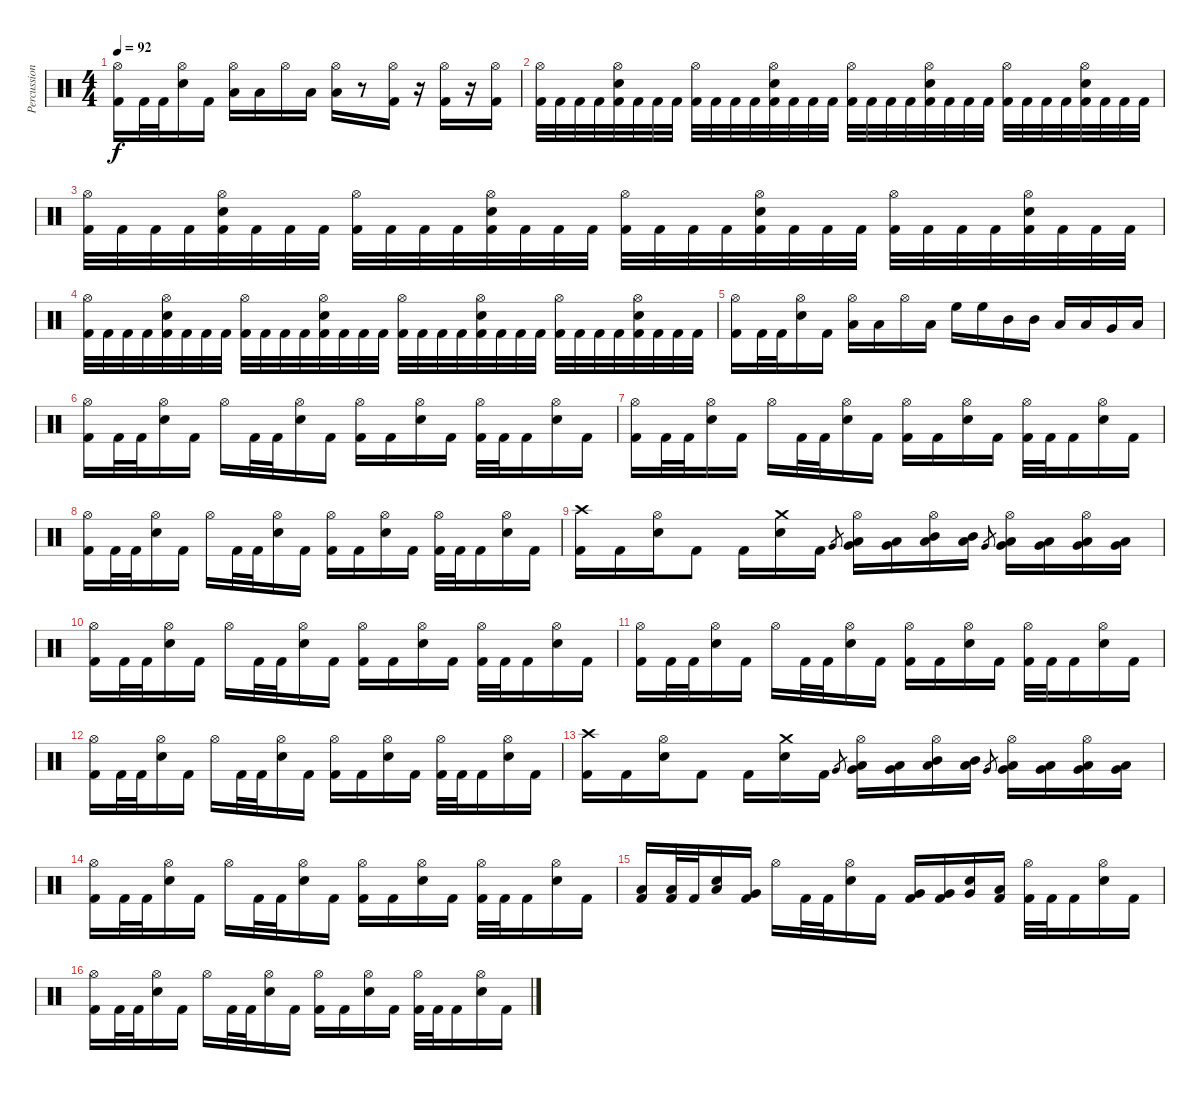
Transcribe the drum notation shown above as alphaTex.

\track ("Percussion" "Percussion") {instrument percussion}
\staff {score}
\articulation defaults
\ts (4 4)
\tempo 92
\clef neutral
\ks c
("Kick (hit) 2" "Hi-Hat (open)").16{dy f} "Kick (hit) 2".32 "Kick (hit) 2".32 ("Electric Snare (hit)" "Hi-Hat (open)").16 "Kick (hit) 2".16 ("Low Tom (hit)" "Hi-Hat (open)").16 "Low Tom (hit)".16 "Hi-Hat (open)".16 "Low Floor Tom (hit)".16 ("Low Floor Tom (hit)" "Hi-Hat (open)").16 r.8 ("Hi-Hat (open)" "Kick (hit) 2").16 r.16 ("Hi-Hat (open)" "Kick (hit) 2").16 r.16 ("Hi-Hat (open)" "Kick (hit) 2").16 |
("Kick (hit) 2" "Hi-Hat (open)").32 "Kick (hit) 2".32 "Kick (hit) 2".32 "Kick (hit) 2".32 ("Kick (hit) 2" "Electric Snare (hit)" "Hi-Hat (open)").32 "Kick (hit) 2".32 "Kick (hit) 2".32 "Kick (hit) 2".32 ("Kick (hit) 2" "Hi-Hat (open)").32 "Kick (hit) 2".32 "Kick (hit) 2".32 "Kick (hit) 2".32 ("Kick (hit) 2" "Electric Snare (hit)" "Hi-Hat (open)").32 "Kick (hit) 2".32 "Kick (hit) 2".32 "Kick (hit) 2".32 ("Kick (hit) 2" "Hi-Hat (open)").32 "Kick (hit) 2".32 "Kick (hit) 2".32 "Kick (hit) 2".32 ("Kick (hit) 2" "Electric Snare (hit)" "Hi-Hat (open)").32 "Kick (hit) 2".32 "Kick (hit) 2".32 "Kick (hit) 2".32 ("Kick (hit) 2" "Hi-Hat (open)").32 "Kick (hit) 2".32 "Kick (hit) 2".32 "Kick (hit) 2".32 ("Kick (hit) 2" "Electric Snare (hit)" "Hi-Hat (open)").32 "Kick (hit) 2".32 "Kick (hit) 2".32 "Kick (hit) 2".32 |
("Kick (hit) 2" "Hi-Hat (open)").32 "Kick (hit) 2".32 "Kick (hit) 2".32 "Kick (hit) 2".32 ("Kick (hit) 2" "Electric Snare (hit)" "Hi-Hat (open)").32 "Kick (hit) 2".32 "Kick (hit) 2".32 "Kick (hit) 2".32 ("Kick (hit) 2" "Hi-Hat (open)").32 "Kick (hit) 2".32 "Kick (hit) 2".32 "Kick (hit) 2".32 ("Kick (hit) 2" "Electric Snare (hit)" "Hi-Hat (open)").32 "Kick (hit) 2".32 "Kick (hit) 2".32 "Kick (hit) 2".32 ("Kick (hit) 2" "Hi-Hat (open)").32 "Kick (hit) 2".32 "Kick (hit) 2".32 "Kick (hit) 2".32 ("Kick (hit) 2" "Electric Snare (hit)" "Hi-Hat (open)").32 "Kick (hit) 2".32 "Kick (hit) 2".32 "Kick (hit) 2".32 ("Kick (hit) 2" "Hi-Hat (open)").32 "Kick (hit) 2".32 "Kick (hit) 2".32 "Kick (hit) 2".32 ("Kick (hit) 2" "Electric Snare (hit)" "Hi-Hat (open)").32 "Kick (hit) 2".32 "Kick (hit) 2".32 "Kick (hit) 2".32 |
("Kick (hit) 2" "Hi-Hat (open)").32 "Kick (hit) 2".32 "Kick (hit) 2".32 "Kick (hit) 2".32 ("Kick (hit) 2" "Electric Snare (hit)" "Hi-Hat (open)").32 "Kick (hit) 2".32 "Kick (hit) 2".32 "Kick (hit) 2".32 ("Kick (hit) 2" "Hi-Hat (open)").32 "Kick (hit) 2".32 "Kick (hit) 2".32 "Kick (hit) 2".32 ("Kick (hit) 2" "Electric Snare (hit)" "Hi-Hat (open)").32 "Kick (hit) 2".32 "Kick (hit) 2".32 "Kick (hit) 2".32 ("Kick (hit) 2" "Hi-Hat (open)").32 "Kick (hit) 2".32 "Kick (hit) 2".32 "Kick (hit) 2".32 ("Kick (hit) 2" "Electric Snare (hit)" "Hi-Hat (open)").32 "Kick (hit) 2".32 "Kick (hit) 2".32 "Kick (hit) 2".32 ("Kick (hit) 2" "Hi-Hat (open)").32 "Kick (hit) 2".32 "Kick (hit) 2".32 "Kick (hit) 2".32 ("Kick (hit) 2" "Electric Snare (hit)" "Hi-Hat (open)").32 "Kick (hit) 2".32 "Kick (hit) 2".32 "Kick (hit) 2".32 |
("Kick (hit) 2" "Hi-Hat (open)").16 "Kick (hit) 2".32 "Kick (hit) 2".32 ("Electric Snare (hit)" "Hi-Hat (open)").16 "Kick (hit) 2".16 ("Low Tom (hit)" "Hi-Hat (open)").16 "Low Tom (hit)".16 "Hi-Hat (open)".16 "Low Floor Tom (hit)".16 "High Floor Tom (hit)".16 "High Floor Tom (hit)".16 "Mid Tom (hit)".16 "Mid Tom (hit)".16 "Low Tom (hit)".16 "Low Tom (hit)".16 "Very Low Tom (hit)".16 "Low Floor Tom (hit)".16 |
("Kick (hit) 2" "Hi-Hat (open)").16 "Kick (hit) 2".32 "Kick (hit) 2".32 ("Electric Snare (hit)" "Hi-Hat (open)").16 "Kick (hit) 2".16 "Hi-Hat (open)".16 "Kick (hit) 2".32 "Kick (hit) 2".32 ("Electric Snare (hit)" "Hi-Hat (open)").16 "Kick (hit) 2".16 ("Kick (hit) 2" "Hi-Hat (open)").16 "Kick (hit) 2".16 ("Electric Snare (hit)" "Hi-Hat (open)").16 "Kick (hit) 2".16 ("Kick (hit) 2" "Hi-Hat (open)").32 "Kick (hit) 2".32 "Kick (hit) 2".16 ("Electric Snare (hit)" "Hi-Hat (open)").16 "Kick (hit) 2".16 |
("Kick (hit) 2" "Hi-Hat (open)").16 "Kick (hit) 2".32 "Kick (hit) 2".32 ("Electric Snare (hit)" "Hi-Hat (open)").16 "Kick (hit) 2".16 "Hi-Hat (open)".16 "Kick (hit) 2".32 "Kick (hit) 2".32 ("Electric Snare (hit)" "Hi-Hat (open)").16 "Kick (hit) 2".16 ("Kick (hit) 2" "Hi-Hat (open)").16 "Kick (hit) 2".16 ("Electric Snare (hit)" "Hi-Hat (open)").16 "Kick (hit) 2".16 ("Kick (hit) 2" "Hi-Hat (open)").32 "Kick (hit) 2".32 "Kick (hit) 2".16 ("Electric Snare (hit)" "Hi-Hat (open)").16 "Kick (hit) 2".16 |
("Kick (hit) 2" "Hi-Hat (open)").16 "Kick (hit) 2".32 "Kick (hit) 2".32 ("Electric Snare (hit)" "Hi-Hat (open)").16 "Kick (hit) 2".16 "Hi-Hat (open)".16 "Kick (hit) 2".32 "Kick (hit) 2".32 ("Electric Snare (hit)" "Hi-Hat (open)").16 "Kick (hit) 2".16 ("Kick (hit) 2" "Hi-Hat (open)").16 "Kick (hit) 2".16 ("Electric Snare (hit)" "Hi-Hat (open)").16 "Kick (hit) 2".16 ("Kick (hit) 2" "Hi-Hat (open)").32 "Kick (hit) 2".32 "Kick (hit) 2".16 ("Electric Snare (hit)" "Hi-Hat (open)").16 "Kick (hit) 2".16 |
("Kick (hit) 2" "Crash high (hit)").16 "Kick (hit) 2".16 ("Electric Snare (hit)" "Hi-Hat (open)").16 "Kick (hit) 2".8 "Kick (hit) 2".16 ("Electric Snare (hit)" "Crash medium (hit)").16 "Kick (hit) 2".16 "Very Low Tom (hit)".8{gr} ("Low Tom (hit)" "Very Low Tom (hit)" "Hi-Hat (open)").16 ("Low Tom (hit)" "Very Low Tom (hit)").16 ("Mid Tom (hit)" "Low Floor Tom (hit)" "Hi-Hat (open)").16 ("Mid Tom (hit)" "Low Floor Tom (hit)").16 "Very Low Tom (hit)".8{gr} ("Low Tom (hit)" "Very Low Tom (hit)" "Hi-Hat (open)").16 ("Low Tom (hit)" "Very Low Tom (hit)").16 ("Low Floor Tom (hit)" "Very Low Tom (hit)" "Hi-Hat (open)").16 ("Low Floor Tom (hit)" "Very Low Tom (hit)").16 |
("Kick (hit) 2" "Hi-Hat (open)").16 "Kick (hit) 2".32 "Kick (hit) 2".32 ("Electric Snare (hit)" "Hi-Hat (open)").16 "Kick (hit) 2".16 "Hi-Hat (open)".16 "Kick (hit) 2".32 "Kick (hit) 2".32 ("Electric Snare (hit)" "Hi-Hat (open)").16 "Kick (hit) 2".16 ("Kick (hit) 2" "Hi-Hat (open)").16 "Kick (hit) 2".16 ("Electric Snare (hit)" "Hi-Hat (open)").16 "Kick (hit) 2".16 ("Kick (hit) 2" "Hi-Hat (open)").32 "Kick (hit) 2".32 "Kick (hit) 2".16 ("Electric Snare (hit)" "Hi-Hat (open)").16 "Kick (hit) 2".16 |
("Kick (hit) 2" "Hi-Hat (open)").16 "Kick (hit) 2".32 "Kick (hit) 2".32 ("Electric Snare (hit)" "Hi-Hat (open)").16 "Kick (hit) 2".16 "Hi-Hat (open)".16 "Kick (hit) 2".32 "Kick (hit) 2".32 ("Electric Snare (hit)" "Hi-Hat (open)").16 "Kick (hit) 2".16 ("Kick (hit) 2" "Hi-Hat (open)").16 "Kick (hit) 2".16 ("Electric Snare (hit)" "Hi-Hat (open)").16 "Kick (hit) 2".16 ("Kick (hit) 2" "Hi-Hat (open)").32 "Kick (hit) 2".32 "Kick (hit) 2".16 ("Electric Snare (hit)" "Hi-Hat (open)").16 "Kick (hit) 2".16 |
("Kick (hit) 2" "Hi-Hat (open)").16 "Kick (hit) 2".32 "Kick (hit) 2".32 ("Electric Snare (hit)" "Hi-Hat (open)").16 "Kick (hit) 2".16 "Hi-Hat (open)".16 "Kick (hit) 2".32 "Kick (hit) 2".32 ("Electric Snare (hit)" "Hi-Hat (open)").16 "Kick (hit) 2".16 ("Kick (hit) 2" "Hi-Hat (open)").16 "Kick (hit) 2".16 ("Electric Snare (hit)" "Hi-Hat (open)").16 "Kick (hit) 2".16 ("Kick (hit) 2" "Hi-Hat (open)").32 "Kick (hit) 2".32 "Kick (hit) 2".16 ("Electric Snare (hit)" "Hi-Hat (open)").16 "Kick (hit) 2".16 |
("Kick (hit) 2" "Crash high (hit)").16 "Kick (hit) 2".16 ("Electric Snare (hit)" "Hi-Hat (open)").16 "Kick (hit) 2".8 "Kick (hit) 2".16 ("Electric Snare (hit)" "Crash medium (hit)").16 "Kick (hit) 2".16 "Very Low Tom (hit)".8{gr} ("Low Tom (hit)" "Very Low Tom (hit)" "Hi-Hat (open)").16 ("Low Tom (hit)" "Very Low Tom (hit)").16 ("Mid Tom (hit)" "Low Floor Tom (hit)" "Hi-Hat (open)").16 ("Mid Tom (hit)" "Low Floor Tom (hit)").16 "Very Low Tom (hit)".8{gr} ("Low Tom (hit)" "Very Low Tom (hit)" "Hi-Hat (open)").16 ("Low Tom (hit)" "Very Low Tom (hit)").16 ("Low Floor Tom (hit)" "Very Low Tom (hit)" "Hi-Hat (open)").16 ("Low Floor Tom (hit)" "Very Low Tom (hit)").16 |
("Kick (hit) 2" "Hi-Hat (open)").16 "Kick (hit) 2".32 "Kick (hit) 2".32 ("Electric Snare (hit)" "Hi-Hat (open)").16 "Kick (hit) 2".16 "Hi-Hat (open)".16 "Kick (hit) 2".32 "Kick (hit) 2".32 ("Electric Snare (hit)" "Hi-Hat (open)").16 "Kick (hit) 2".16 ("Kick (hit) 2" "Hi-Hat (open)").16 "Kick (hit) 2".16 ("Electric Snare (hit)" "Hi-Hat (open)").16 "Kick (hit) 2".16 ("Kick (hit) 2" "Hi-Hat (open)").32 "Kick (hit) 2".32 "Kick (hit) 2".16 ("Electric Snare (hit)" "Hi-Hat (open)").16 "Kick (hit) 2".16 |
("Kick (hit) 2" "Low Tom (hit)").16 ("Kick (hit) 2" "Low Tom (hit)").32 "Kick (hit) 2".32 ("Electric Snare (hit)" "Low Tom (hit)").16 ("Kick (hit) 2" "Very Low Tom (hit)").16 "Hi-Hat (open)".16 "Kick (hit) 2".32 "Kick (hit) 2".32 ("Electric Snare (hit)" "Hi-Hat (open)").16 "Kick (hit) 2".16 ("Kick (hit) 2" "Very Low Tom (hit)").16 ("Kick (hit) 2" "Very Low Tom (hit)").16 ("Electric Snare (hit)" "Very Low Tom (hit)").16 ("Kick (hit) 2" "Low Floor Tom (hit)").16 ("Kick (hit) 2" "Hi-Hat (open)").32 "Kick (hit) 2".32 "Kick (hit) 2".16 ("Electric Snare (hit)" "Hi-Hat (open)").16 "Kick (hit) 2".16 |
("Kick (hit) 2" "Hi-Hat (open)").16 "Kick (hit) 2".32 "Kick (hit) 2".32 ("Electric Snare (hit)" "Hi-Hat (open)").16 "Kick (hit) 2".16 "Hi-Hat (open)".16 "Kick (hit) 2".32 "Kick (hit) 2".32 ("Electric Snare (hit)" "Hi-Hat (open)").16 "Kick (hit) 2".16 ("Kick (hit) 2" "Hi-Hat (open)").16 "Kick (hit) 2".16 ("Electric Snare (hit)" "Hi-Hat (open)").16 "Kick (hit) 2".16 ("Kick (hit) 2" "Hi-Hat (open)").32 "Kick (hit) 2".32 "Kick (hit) 2".16 ("Electric Snare (hit)" "Hi-Hat (open)").16 "Kick (hit) 2".16
